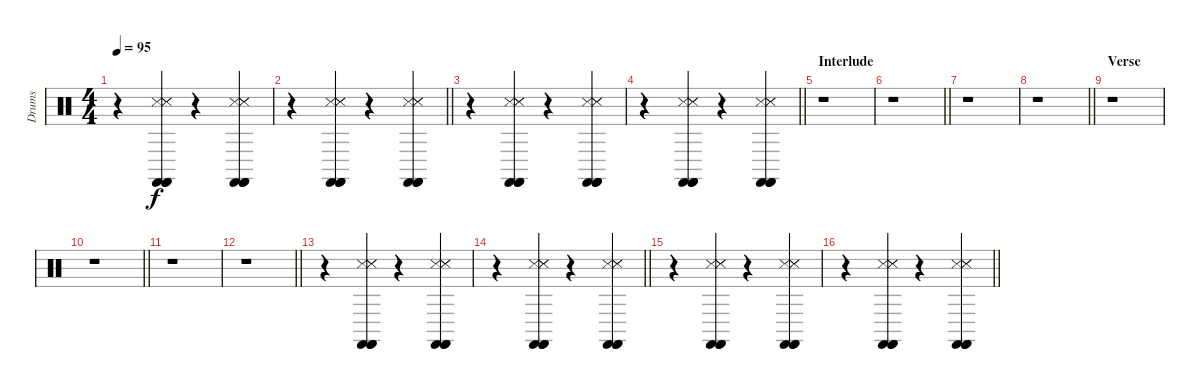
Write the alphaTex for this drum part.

\track ("Drums" "Drums") {instrument percussion}
\staff {score}
\articulation defaults
\ts (4 4)
\tempo 95
\clef neutral
\ks c
r.4{dy f} ("Castanets (hit)" "Snare (side stick) 3" "Castanets (hit)" "Snare (side stick) 3" "Snare (side stick) 3" "Castanets (hit)").4 r.4 ("Castanets (hit)" "Snare (side stick) 3" "Castanets (hit)" "Snare (side stick) 3" "Snare (side stick) 3" "Castanets (hit)").4 |
\barLineRight lightlight
r.4 ("Castanets (hit)" "Snare (side stick) 3" "Castanets (hit)" "Snare (side stick) 3" "Snare (side stick) 3" "Castanets (hit)").4 r.4 ("Castanets (hit)" "Snare (side stick) 3" "Castanets (hit)" "Snare (side stick) 3" "Snare (side stick) 3" "Castanets (hit)").4 |
r.4 ("Castanets (hit)" "Snare (side stick) 3" "Castanets (hit)" "Snare (side stick) 3" "Snare (side stick) 3" "Castanets (hit)").4 r.4 ("Castanets (hit)" "Snare (side stick) 3" "Castanets (hit)" "Snare (side stick) 3" "Snare (side stick) 3" "Castanets (hit)").4 |
\barLineRight lightlight
r.4 ("Castanets (hit)" "Snare (side stick) 3" "Castanets (hit)" "Snare (side stick) 3" "Snare (side stick) 3" "Castanets (hit)").4 r.4 ("Castanets (hit)" "Snare (side stick) 3" "Castanets (hit)" "Snare (side stick) 3" "Snare (side stick) 3" "Castanets (hit)").4 |
\section ("" "Interlude")
r.1 |
\barLineRight lightlight
r.1 |
r.1 |
\barLineRight lightlight
r.1 |
\section ("" "Verse")
r.1 |
\barLineRight lightlight
r.1 |
r.1 |
\barLineRight lightlight
r.1 |
r.4 ("Castanets (hit)" "Snare (side stick) 3" "Castanets (hit)" "Snare (side stick) 3" "Snare (side stick) 3" "Castanets (hit)").4 r.4 ("Castanets (hit)" "Snare (side stick) 3" "Castanets (hit)" "Snare (side stick) 3" "Snare (side stick) 3" "Castanets (hit)").4 |
\barLineRight lightlight
r.4 ("Castanets (hit)" "Snare (side stick) 3" "Castanets (hit)" "Snare (side stick) 3" "Snare (side stick) 3" "Castanets (hit)").4 r.4 ("Castanets (hit)" "Snare (side stick) 3" "Castanets (hit)" "Snare (side stick) 3" "Snare (side stick) 3" "Castanets (hit)").4 |
r.4 ("Castanets (hit)" "Snare (side stick) 3" "Castanets (hit)" "Snare (side stick) 3" "Snare (side stick) 3" "Castanets (hit)").4 r.4 ("Castanets (hit)" "Snare (side stick) 3" "Castanets (hit)" "Snare (side stick) 3" "Snare (side stick) 3" "Castanets (hit)").4 |
\barLineRight lightlight
r.4 ("Castanets (hit)" "Snare (side stick) 3" "Castanets (hit)" "Snare (side stick) 3" "Snare (side stick) 3" "Castanets (hit)").4 r.4 ("Castanets (hit)" "Snare (side stick) 3" "Castanets (hit)" "Snare (side stick) 3" "Snare (side stick) 3" "Castanets (hit)").4
